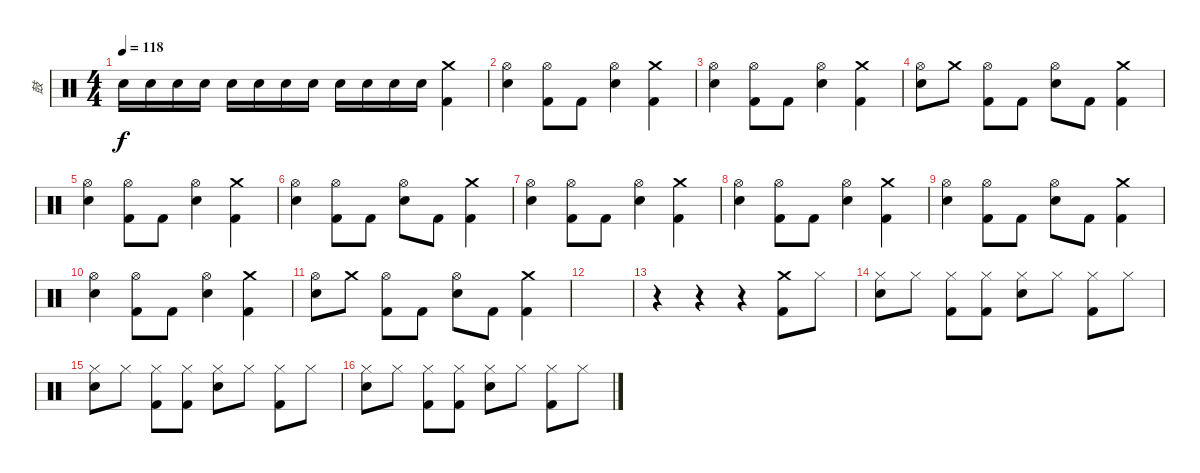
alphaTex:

\track ("鼓" "鼓") {instrument percussion}
\staff {score}
\articulation defaults
\ts (4 4)
\tempo 118
\clef neutral
\ks c "Electric Snare (hit)".16{dy f} "Electric Snare (hit)".16 "Electric Snare (hit)".16 "Electric Snare (hit)".16 "Electric Snare (hit)".16 "Electric Snare (hit)".16 "Electric Snare (hit)".16 "Electric Snare (hit)".16 "Electric Snare (hit)".16 "Electric Snare (hit)".16 "Electric Snare (hit)".16 "Electric Snare (hit)".16
("Crash medium (hit)" "Kick (hit) 2").4 |
("Hi-Hat (open)" "Electric Snare (hit)").4 ("Hi-Hat (open)" "Kick (hit) 2").8 "Kick (hit) 2".8 ("Hi-Hat (open)" "Electric Snare (hit)").4 ("Crash medium (hit)" "Kick (hit) 2").4 |
("Hi-Hat (open)" "Electric Snare (hit)").4 ("Hi-Hat (open)" "Kick (hit) 2").8 "Kick (hit) 2".8 ("Hi-Hat (open)" "Electric Snare (hit)").4 ("Crash medium (hit)" "Kick (hit) 2").4 |
("Hi-Hat (open)" "Electric Snare (hit)").8 "Crash medium (hit)".8 ("Hi-Hat (open)" "Kick (hit) 2").8 "Kick (hit) 2".8 ("Hi-Hat (open)" "Electric Snare (hit)").8 "Kick (hit) 2".8 ("Crash medium (hit)" "Kick (hit) 2").4 |
("Hi-Hat (open)" "Electric Snare (hit)").4 ("Hi-Hat (open)" "Kick (hit) 2").8 "Kick (hit) 2".8 ("Hi-Hat (open)" "Electric Snare (hit)").4 ("Crash medium (hit)" "Kick (hit) 2").4 |
("Hi-Hat (open)" "Electric Snare (hit)").4 ("Hi-Hat (open)" "Kick (hit) 2").8 "Kick (hit) 2".8 ("Hi-Hat (open)" "Electric Snare (hit)").8 "Kick (hit) 2".8 ("Crash medium (hit)" "Kick (hit) 2").4 |
("Hi-Hat (open)" "Electric Snare (hit)").4 ("Hi-Hat (open)" "Kick (hit) 2").8 "Kick (hit) 2".8 ("Hi-Hat (open)" "Electric Snare (hit)").4 ("Crash medium (hit)" "Kick (hit) 2").4 |
("Hi-Hat (open)" "Electric Snare (hit)").4 ("Hi-Hat (open)" "Kick (hit) 2").8 "Kick (hit) 2".8 ("Hi-Hat (open)" "Electric Snare (hit)").4 ("Crash medium (hit)" "Kick (hit) 2").4 |
("Hi-Hat (open)" "Electric Snare (hit)").4 ("Hi-Hat (open)" "Kick (hit) 2").8 "Kick (hit) 2".8 ("Hi-Hat (open)" "Electric Snare (hit)").8 "Kick (hit) 2".8 ("Crash medium (hit)" "Kick (hit) 2").4 |
("Hi-Hat (open)" "Electric Snare (hit)").4 ("Hi-Hat (open)" "Kick (hit) 2").8 "Kick (hit) 2".8 ("Hi-Hat (open)" "Electric Snare (hit)").4 ("Crash medium (hit)" "Kick (hit) 2").4 |
("Hi-Hat (open)" "Electric Snare (hit)").8 "Crash medium (hit)".8 ("Hi-Hat (open)" "Kick (hit) 2").8 "Kick (hit) 2".8 ("Hi-Hat (open)" "Electric Snare (hit)").8 "Kick (hit) 2".8 ("Crash medium (hit)" "Kick (hit) 2").4 |
|
r.4 r.4 r.4 ("Crash medium (hit)" "Kick (hit) 2").8 "Hi-Hat (closed)".8 |
("Hi-Hat (closed)" "Electric Snare (hit)").8 "Hi-Hat (closed)".8 ("Hi-Hat (closed)" "Kick (hit) 2").8 ("Hi-Hat (closed)" "Kick (hit) 2").8 ("Hi-Hat (closed)" "Electric Snare (hit)").8 "Hi-Hat (closed)".8 ("Hi-Hat (closed)" "Kick (hit) 2").8 "Hi-Hat (closed)".8 |
("Hi-Hat (closed)" "Electric Snare (hit)").8 "Hi-Hat (closed)".8 ("Hi-Hat (closed)" "Kick (hit) 2").8 ("Hi-Hat (closed)" "Kick (hit) 2").8 ("Hi-Hat (closed)" "Electric Snare (hit)").8 "Hi-Hat (closed)".8 ("Hi-Hat (closed)" "Kick (hit) 2").8 "Hi-Hat (closed)".8 |
("Hi-Hat (closed)" "Electric Snare (hit)").8 "Hi-Hat (closed)".8 ("Hi-Hat (closed)" "Kick (hit) 2").8 ("Hi-Hat (closed)" "Kick (hit) 2").8 ("Hi-Hat (closed)" "Electric Snare (hit)").8 "Hi-Hat (closed)".8 ("Hi-Hat (closed)" "Kick (hit) 2").8 "Hi-Hat (closed)".8
